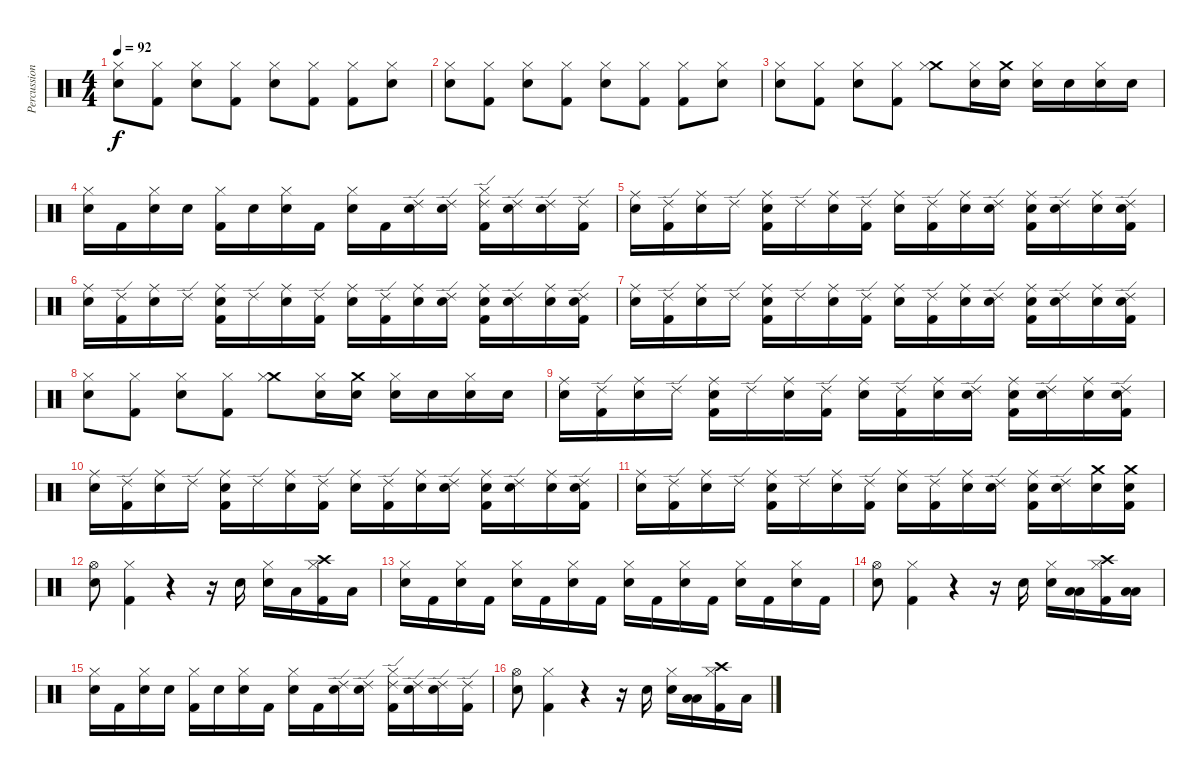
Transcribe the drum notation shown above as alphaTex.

\track ("Percussion" "Percussion") {instrument percussion}
\staff {score}
\articulation defaults
\ts (4 4)
\tempo 92
\clef neutral
\ks c
("Hi-Hat (closed)" "Snare (hit) 2").8{dy f} ("Hi-Hat (closed)" "Kick (hit) 2").8 ("Hi-Hat (closed)" "Snare (hit) 2").8 ("Hi-Hat (closed)" "Kick (hit) 2").8 ("Hi-Hat (closed)" "Snare (hit) 2").8 ("Hi-Hat (closed)" "Kick (hit) 2").8 ("Hi-Hat (closed)" "Kick (hit) 2").8 ("Hi-Hat (closed)" "Snare (hit) 2").8 |
("Hi-Hat (closed)" "Snare (hit) 2").8 ("Hi-Hat (closed)" "Kick (hit) 2").8 ("Hi-Hat (closed)" "Snare (hit) 2").8 ("Hi-Hat (closed)" "Kick (hit) 2").8 ("Hi-Hat (closed)" "Snare (hit) 2").8 ("Hi-Hat (closed)" "Kick (hit) 2").8 ("Hi-Hat (closed)" "Kick (hit) 2").8 ("Hi-Hat (closed)" "Snare (hit) 2").8 |
("Hi-Hat (closed)" "Snare (hit) 2").8 ("Hi-Hat (closed)" "Kick (hit) 2").8 ("Hi-Hat (closed)" "Snare (hit) 2").8 ("Hi-Hat (closed)" "Kick (hit) 2").8 ("Crash medium (hit)" "Hi-Hat (closed)").8 ("Hi-Hat (closed)" "Snare (hit) 2").16 ("Crash medium (hit)" "Snare (hit) 2").16 ("Hi-Hat (closed)" "Snare (hit) 2").16 "Snare (hit) 2".16 ("Hi-Hat (closed)" "Snare (hit) 2").16 "Snare (hit) 2".16 |
("Hi-Hat (closed)" "Snare (hit) 2").16 "Kick (hit) 2".16 ("Hi-Hat (closed)" "Snare (hit) 2").16 "Snare (hit) 2".16 ("Hi-Hat (closed)" "Kick (hit) 2").16 "Snare (hit) 2".16 ("Hi-Hat (closed)" "Snare (hit) 2").16 "Kick (hit) 2".16 ("Hi-Hat (closed)" "Snare (hit) 2").16 "Kick (hit) 2".16 ("Ride (edge) 2" "Snare (hit) 2").16 ("Ride (edge) 2" "Snare (hit) 2").16 ("Ride (edge) 2" "Hi-Hat (closed)" "Kick (hit) 2").16 ("Ride (edge) 2" "Snare (hit) 2").16 ("Ride (edge) 2" "Snare (hit) 2").16 ("Ride (edge) 2" "Kick (hit) 2").16 |
("Ride (middle)" "Snare (hit) 2").16 ("Ride (edge) 2" "Kick (hit) 2").16 ("Ride (middle)" "Snare (hit) 2").16 "Ride (edge) 2".16 ("Ride (middle)" "Snare (hit) 2" "Kick (hit) 2").16 "Ride (edge) 2".16 ("Ride (middle)" "Snare (hit) 2").16 ("Ride (edge) 2" "Kick (hit) 2").16 ("Ride (middle)" "Snare (hit) 2").16 ("Ride (edge) 2" "Kick (hit) 2").16 ("Ride (middle)" "Snare (hit) 2").16 ("Ride (edge) 2" "Snare (hit) 2").16 ("Ride (middle)" "Snare (hit) 2" "Kick (hit) 2").16 ("Ride (edge) 2" "Snare (hit) 2").16 ("Ride (middle)" "Snare (hit) 2").16 ("Ride (edge) 2" "Snare (hit) 2" "Kick (hit) 2").16 |
("Ride (middle)" "Snare (hit) 2").16 ("Ride (edge) 2" "Kick (hit) 2").16 ("Ride (middle)" "Snare (hit) 2").16 "Ride (edge) 2".16 ("Ride (middle)" "Snare (hit) 2" "Kick (hit) 2").16 "Ride (edge) 2".16 ("Ride (middle)" "Snare (hit) 2").16 ("Ride (edge) 2" "Kick (hit) 2").16 ("Ride (middle)" "Snare (hit) 2").16 ("Ride (edge) 2" "Kick (hit) 2").16 ("Ride (middle)" "Snare (hit) 2").16 ("Ride (edge) 2" "Snare (hit) 2").16 ("Ride (middle)" "Snare (hit) 2" "Kick (hit) 2").16 ("Ride (edge) 2" "Snare (hit) 2").16 ("Ride (middle)" "Snare (hit) 2").16 ("Ride (edge) 2" "Snare (hit) 2" "Kick (hit) 2").16 |
("Ride (middle)" "Snare (hit) 2").16 ("Ride (edge) 2" "Kick (hit) 2").16 ("Ride (middle)" "Snare (hit) 2").16 "Ride (edge) 2".16 ("Ride (middle)" "Snare (hit) 2" "Kick (hit) 2").16 "Ride (edge) 2".16 ("Ride (middle)" "Snare (hit) 2").16 ("Ride (edge) 2" "Kick (hit) 2").16 ("Ride (middle)" "Snare (hit) 2").16 ("Ride (edge) 2" "Kick (hit) 2").16 ("Ride (middle)" "Snare (hit) 2").16 ("Ride (edge) 2" "Snare (hit) 2").16 ("Ride (middle)" "Snare (hit) 2" "Kick (hit) 2").16 ("Ride (edge) 2" "Snare (hit) 2").16 ("Ride (middle)" "Snare (hit) 2").16 ("Ride (edge) 2" "Snare (hit) 2" "Kick (hit) 2").16 |
("Hi-Hat (closed)" "Snare (hit) 2").8 ("Hi-Hat (closed)" "Kick (hit) 2").8 ("Hi-Hat (closed)" "Snare (hit) 2").8 ("Hi-Hat (closed)" "Kick (hit) 2").8 ("Crash medium (hit)" "Hi-Hat (closed)").8 ("Hi-Hat (closed)" "Snare (hit) 2").16 ("Crash medium (hit)" "Snare (hit) 2").16 ("Hi-Hat (closed)" "Snare (hit) 2").16 "Snare (hit) 2".16 ("Hi-Hat (closed)" "Snare (hit) 2").16 "Snare (hit) 2".16 |
("Ride (middle)" "Snare (hit) 2").16 ("Ride (edge) 2" "Kick (hit) 2").16 ("Ride (middle)" "Snare (hit) 2").16 "Ride (edge) 2".16 ("Ride (middle)" "Snare (hit) 2" "Kick (hit) 2").16 "Ride (edge) 2".16 ("Ride (middle)" "Snare (hit) 2").16 ("Ride (edge) 2" "Kick (hit) 2").16 ("Ride (middle)" "Snare (hit) 2").16 ("Ride (edge) 2" "Kick (hit) 2").16 ("Ride (middle)" "Snare (hit) 2").16 ("Ride (edge) 2" "Snare (hit) 2").16 ("Ride (middle)" "Snare (hit) 2" "Kick (hit) 2").16 ("Ride (edge) 2" "Snare (hit) 2").16 ("Ride (middle)" "Snare (hit) 2").16 ("Ride (edge) 2" "Snare (hit) 2" "Kick (hit) 2").16 |
("Ride (middle)" "Snare (hit) 2").16 ("Ride (edge) 2" "Kick (hit) 2").16 ("Ride (middle)" "Snare (hit) 2").16 "Ride (edge) 2".16 ("Ride (middle)" "Snare (hit) 2" "Kick (hit) 2").16 "Ride (edge) 2".16 ("Ride (middle)" "Snare (hit) 2").16 ("Ride (edge) 2" "Kick (hit) 2").16 ("Ride (middle)" "Snare (hit) 2").16 ("Ride (edge) 2" "Kick (hit) 2").16 ("Ride (middle)" "Snare (hit) 2").16 ("Ride (edge) 2" "Snare (hit) 2").16 ("Ride (middle)" "Snare (hit) 2" "Kick (hit) 2").16 ("Ride (edge) 2" "Snare (hit) 2").16 ("Ride (middle)" "Snare (hit) 2").16 ("Ride (edge) 2" "Snare (hit) 2" "Kick (hit) 2").16 |
("Ride (middle)" "Snare (hit) 2").16 ("Ride (edge) 2" "Kick (hit) 2").16 ("Ride (middle)" "Snare (hit) 2").16 "Ride (edge) 2".16 ("Ride (middle)" "Snare (hit) 2" "Kick (hit) 2").16 "Ride (edge) 2".16 ("Ride (middle)" "Snare (hit) 2").16 ("Ride (edge) 2" "Kick (hit) 2").16 ("Ride (middle)" "Snare (hit) 2").16 ("Ride (edge) 2" "Kick (hit) 2").16 ("Ride (middle)" "Snare (hit) 2").16 ("Ride (edge) 2" "Snare (hit) 2").16 ("Ride (middle)" "Snare (hit) 2" "Kick (hit) 2").16 ("Ride (edge) 2" "Snare (hit) 2").16 ("Crash medium (hit)" "Snare (hit) 2").16 ("Crash medium (hit)" "Snare (hit) 2" "Kick (hit) 2").16 |
("Hi-Hat (open)" "Snare (hit) 2").8 ("Hi-Hat (closed)" "Kick (hit) 2").4 r.4 r.16 "Snare (hit) 2".16 ("Hi-Hat (closed)" "Snare (hit) 2").16 "Low Floor Tom (hit)".16 ("Crash high (hit)" "Hi-Hat (closed)" "Kick (hit) 2").16 "Low Floor Tom (hit)".16 |
("Hi-Hat (closed)" "Snare (hit) 2").16 "Kick (hit) 2".16 ("Hi-Hat (closed)" "Snare (hit) 2").16 "Kick (hit) 2".16 ("Hi-Hat (closed)" "Snare (hit) 2").16 "Kick (hit) 2".16 ("Hi-Hat (closed)" "Snare (hit) 2").16 "Kick (hit) 2".16 ("Hi-Hat (closed)" "Snare (hit) 2").16 "Kick (hit) 2".16 ("Hi-Hat (closed)" "Snare (hit) 2").16 "Kick (hit) 2".16 ("Hi-Hat (closed)" "Snare (hit) 2").16 "Kick (hit) 2".16 ("Hi-Hat (closed)" "Snare (hit) 2").16 "Kick (hit) 2".16 |
("Hi-Hat (open)" "Snare (hit) 2").8 ("Hi-Hat (closed)" "Kick (hit) 2").4 r.4 r.16 "Snare (hit) 2".16 ("Hi-Hat (closed)" "Snare (hit) 2").16 ("Low Floor Tom (hit)" "Low Floor Tom (hit)").16 ("Crash high (hit)" "Hi-Hat (closed)" "Kick (hit) 2").16 ("Low Floor Tom (hit)" "Low Floor Tom (hit)").16 |
("Hi-Hat (closed)" "Snare (hit) 2").16 "Kick (hit) 2".16 ("Hi-Hat (closed)" "Snare (hit) 2").16 "Snare (hit) 2".16 ("Hi-Hat (closed)" "Kick (hit) 2").16 "Snare (hit) 2".16 ("Hi-Hat (closed)" "Snare (hit) 2").16 "Kick (hit) 2".16 ("Hi-Hat (closed)" "Snare (hit) 2").16 "Kick (hit) 2".16 ("Ride (edge) 2" "Snare (hit) 2").16 ("Ride (edge) 2" "Snare (hit) 2").16 ("Ride (edge) 2" "Hi-Hat (closed)" "Kick (hit) 2").16 ("Ride (edge) 2" "Snare (hit) 2").16 ("Ride (edge) 2" "Snare (hit) 2").16 ("Ride (edge) 2" "Kick (hit) 2").16 |
("Hi-Hat (open)" "Snare (hit) 2").8 ("Hi-Hat (closed)" "Kick (hit) 2").4 r.4 r.16 "Snare (hit) 2".16 ("Hi-Hat (closed)" "Snare (hit) 2").16 ("Low Floor Tom (hit)" "Low Floor Tom (hit)").16 ("Crash high (hit)" "Hi-Hat (closed)" "Kick (hit) 2").16 "Low Floor Tom (hit)".16
